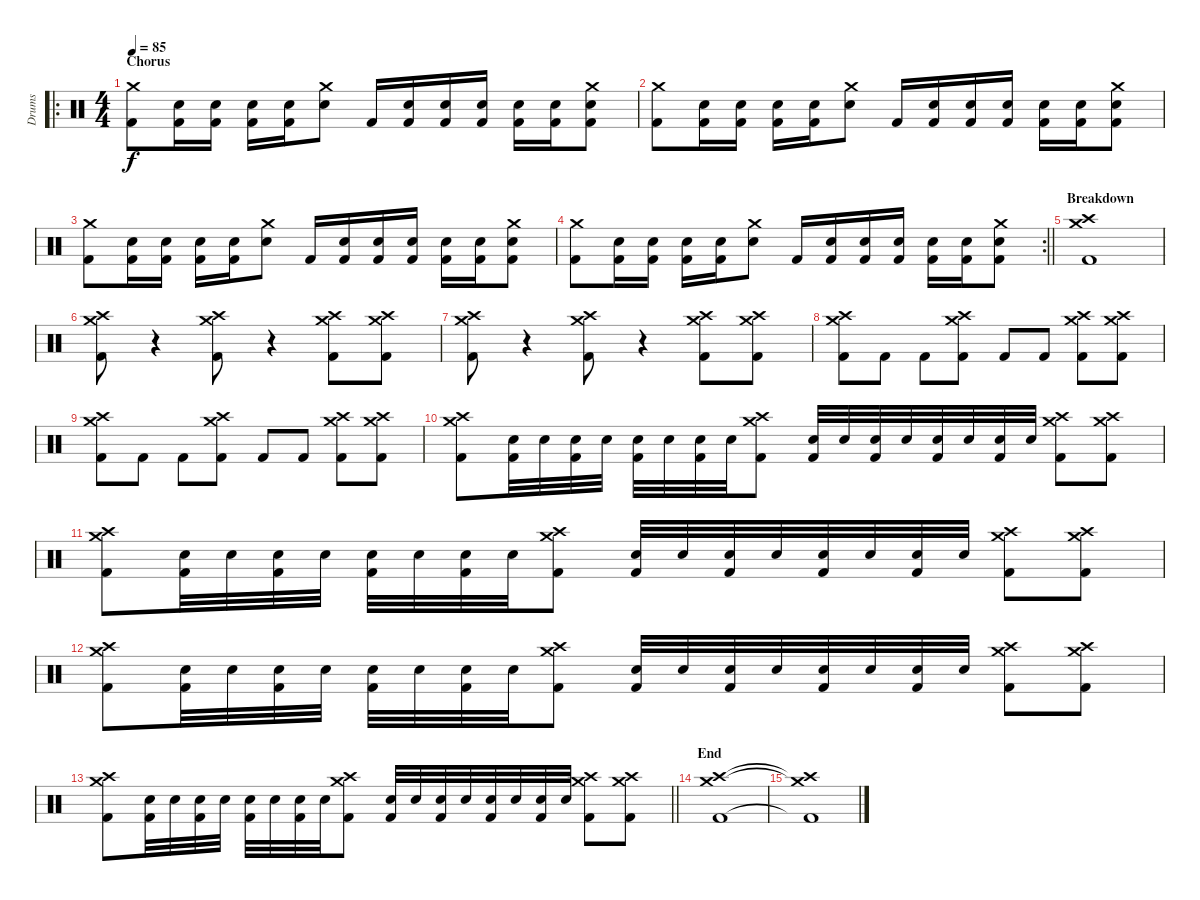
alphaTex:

\track ("Drums" "Drums") {instrument percussion}
\staff {score}
\articulation defaults
\ro
\ts (4 4)
\section ("" "Chorus")
\tempo 85
\clef neutral
\ks c
("Crash medium (hit)" "Kick (hit) 2").8{dy f} ("Electric Snare (hit)" "Kick (hit) 2").16 ("Electric Snare (hit)" "Kick (hit) 2").16 ("Electric Snare (hit)" "Kick (hit) 2").16 ("Electric Snare (hit)" "Kick (hit) 2").16 ("Crash medium (hit)" "Electric Snare (hit)").8 "Kick (hit) 2".16 ("Electric Snare (hit)" "Kick (hit) 2").16 ("Electric Snare (hit)" "Kick (hit) 2").16 ("Electric Snare (hit)" "Kick (hit) 2").16 ("Electric Snare (hit)" "Kick (hit) 2").16 ("Electric Snare (hit)" "Kick (hit) 2").16 ("Crash medium (hit)" "Electric Snare (hit)" "Kick (hit) 2").8 |
("Crash medium (hit)" "Kick (hit) 2").8 ("Electric Snare (hit)" "Kick (hit) 2").16 ("Electric Snare (hit)" "Kick (hit) 2").16 ("Electric Snare (hit)" "Kick (hit) 2").16 ("Electric Snare (hit)" "Kick (hit) 2").16 ("Crash medium (hit)" "Electric Snare (hit)").8 "Kick (hit) 2".16 ("Electric Snare (hit)" "Kick (hit) 2").16 ("Electric Snare (hit)" "Kick (hit) 2").16 ("Electric Snare (hit)" "Kick (hit) 2").16 ("Electric Snare (hit)" "Kick (hit) 2").16 ("Electric Snare (hit)" "Kick (hit) 2").16 ("Crash medium (hit)" "Electric Snare (hit)" "Kick (hit) 2").8 |
("Crash medium (hit)" "Kick (hit) 2").8 ("Electric Snare (hit)" "Kick (hit) 2").16 ("Electric Snare (hit)" "Kick (hit) 2").16 ("Electric Snare (hit)" "Kick (hit) 2").16 ("Electric Snare (hit)" "Kick (hit) 2").16 ("Crash medium (hit)" "Electric Snare (hit)").8 "Kick (hit) 2".16 ("Electric Snare (hit)" "Kick (hit) 2").16 ("Electric Snare (hit)" "Kick (hit) 2").16 ("Electric Snare (hit)" "Kick (hit) 2").16 ("Electric Snare (hit)" "Kick (hit) 2").16 ("Electric Snare (hit)" "Kick (hit) 2").16 ("Crash medium (hit)" "Electric Snare (hit)" "Kick (hit) 2").8 |
\rc 2
\barLineRight lightlight
("Crash medium (hit)" "Kick (hit) 2").8 ("Electric Snare (hit)" "Kick (hit) 2").16 ("Electric Snare (hit)" "Kick (hit) 2").16 ("Electric Snare (hit)" "Kick (hit) 2").16 ("Electric Snare (hit)" "Kick (hit) 2").16 ("Crash medium (hit)" "Electric Snare (hit)").8 "Kick (hit) 2".16 ("Electric Snare (hit)" "Kick (hit) 2").16 ("Electric Snare (hit)" "Kick (hit) 2").16 ("Electric Snare (hit)" "Kick (hit) 2").16 ("Electric Snare (hit)" "Kick (hit) 2").16 ("Electric Snare (hit)" "Kick (hit) 2").16 ("Crash medium (hit)" "Electric Snare (hit)" "Kick (hit) 2").8 |
\section ("" "Breakdown")
("Crash medium (hit)" "Crash high (hit)" "Kick (hit) 2").1 |
("Crash medium (hit)" "Crash high (hit)" "Kick (hit) 2").8 r.4 ("Crash medium (hit)" "Crash high (hit)" "Kick (hit) 2").8 r.4 ("Crash medium (hit)" "Crash high (hit)" "Kick (hit) 2").8 ("Crash medium (hit)" "Crash high (hit)" "Kick (hit) 2").8 |
("Crash medium (hit)" "Crash high (hit)" "Kick (hit) 2").8 r.4 ("Crash medium (hit)" "Crash high (hit)" "Kick (hit) 2").8 r.4 ("Crash medium (hit)" "Crash high (hit)" "Kick (hit) 2").8 ("Crash medium (hit)" "Crash high (hit)" "Kick (hit) 2").8 |
("Crash medium (hit)" "Crash high (hit)" "Kick (hit) 2").8 "Kick (hit) 2".8 "Kick (hit) 2".8 ("Crash medium (hit)" "Crash high (hit)" "Kick (hit) 2").8 "Kick (hit) 2".8 "Kick (hit) 2".8 ("Crash medium (hit)" "Crash high (hit)" "Kick (hit) 2").8 ("Crash medium (hit)" "Crash high (hit)" "Kick (hit) 2").8 |
("Crash medium (hit)" "Crash high (hit)" "Kick (hit) 2").8 "Kick (hit) 2".8 "Kick (hit) 2".8 ("Crash medium (hit)" "Crash high (hit)" "Kick (hit) 2").8 "Kick (hit) 2".8 "Kick (hit) 2".8 ("Crash medium (hit)" "Crash high (hit)" "Kick (hit) 2").8 ("Crash medium (hit)" "Crash high (hit)" "Kick (hit) 2").8 |
("Crash medium (hit)" "Crash high (hit)" "Kick (hit) 2").8 ("Electric Snare (hit)" "Kick (hit) 2").32 "Electric Snare (hit)".32 ("Electric Snare (hit)" "Kick (hit) 2").32 "Electric Snare (hit)".32 ("Electric Snare (hit)" "Kick (hit) 2").32 "Electric Snare (hit)".32 ("Electric Snare (hit)" "Kick (hit) 2").32 "Electric Snare (hit)".32 ("Crash medium (hit)" "Crash high (hit)" "Kick (hit) 2").8 ("Electric Snare (hit)" "Kick (hit) 2").32 "Electric Snare (hit)".32 ("Electric Snare (hit)" "Kick (hit) 2").32 "Electric Snare (hit)".32 ("Electric Snare (hit)" "Kick (hit) 2").32 "Electric Snare (hit)".32 ("Electric Snare (hit)" "Kick (hit) 2").32 "Electric Snare (hit)".32 ("Crash medium (hit)" "Crash high (hit)" "Kick (hit) 2").8 ("Crash medium (hit)" "Crash high (hit)" "Kick (hit) 2").8 |
("Crash medium (hit)" "Crash high (hit)" "Kick (hit) 2").8 ("Electric Snare (hit)" "Kick (hit) 2").32 "Electric Snare (hit)".32 ("Electric Snare (hit)" "Kick (hit) 2").32 "Electric Snare (hit)".32 ("Electric Snare (hit)" "Kick (hit) 2").32 "Electric Snare (hit)".32 ("Electric Snare (hit)" "Kick (hit) 2").32 "Electric Snare (hit)".32 ("Crash medium (hit)" "Crash high (hit)" "Kick (hit) 2").8 ("Electric Snare (hit)" "Kick (hit) 2").32 "Electric Snare (hit)".32 ("Electric Snare (hit)" "Kick (hit) 2").32 "Electric Snare (hit)".32 ("Electric Snare (hit)" "Kick (hit) 2").32 "Electric Snare (hit)".32 ("Electric Snare (hit)" "Kick (hit) 2").32 "Electric Snare (hit)".32 ("Crash medium (hit)" "Crash high (hit)" "Kick (hit) 2").8 ("Crash medium (hit)" "Crash high (hit)" "Kick (hit) 2").8 |
("Crash medium (hit)" "Crash high (hit)" "Kick (hit) 2").8 ("Electric Snare (hit)" "Kick (hit) 2").32 "Electric Snare (hit)".32 ("Electric Snare (hit)" "Kick (hit) 2").32 "Electric Snare (hit)".32 ("Electric Snare (hit)" "Kick (hit) 2").32 "Electric Snare (hit)".32 ("Electric Snare (hit)" "Kick (hit) 2").32 "Electric Snare (hit)".32 ("Crash medium (hit)" "Crash high (hit)" "Kick (hit) 2").8 ("Electric Snare (hit)" "Kick (hit) 2").32 "Electric Snare (hit)".32 ("Electric Snare (hit)" "Kick (hit) 2").32 "Electric Snare (hit)".32 ("Electric Snare (hit)" "Kick (hit) 2").32 "Electric Snare (hit)".32 ("Electric Snare (hit)" "Kick (hit) 2").32 "Electric Snare (hit)".32 ("Crash medium (hit)" "Crash high (hit)" "Kick (hit) 2").8 ("Crash medium (hit)" "Crash high (hit)" "Kick (hit) 2").8 |
\barLineRight lightlight
("Crash medium (hit)" "Crash high (hit)" "Kick (hit) 2").8 ("Electric Snare (hit)" "Kick (hit) 2").32 "Electric Snare (hit)".32 ("Electric Snare (hit)" "Kick (hit) 2").32 "Electric Snare (hit)".32 ("Electric Snare (hit)" "Kick (hit) 2").32 "Electric Snare (hit)".32 ("Electric Snare (hit)" "Kick (hit) 2").32 "Electric Snare (hit)".32 ("Crash medium (hit)" "Crash high (hit)" "Kick (hit) 2").8 ("Electric Snare (hit)" "Kick (hit) 2").32 "Electric Snare (hit)".32 ("Electric Snare (hit)" "Kick (hit) 2").32 "Electric Snare (hit)".32 ("Electric Snare (hit)" "Kick (hit) 2").32 "Electric Snare (hit)".32 ("Electric Snare (hit)" "Kick (hit) 2").32 "Electric Snare (hit)".32 ("Crash medium (hit)" "Crash high (hit)" "Kick (hit) 2").8 ("Crash medium (hit)" "Crash high (hit)" "Kick (hit) 2").8 |
\section ("" "End")
("Crash medium (hit)" "Crash high (hit)" "Kick (hit) 2").1 |
("Crash medium (hit)"{t} "Crash high (hit)"{t} "Kick (hit) 2"{t}).1
